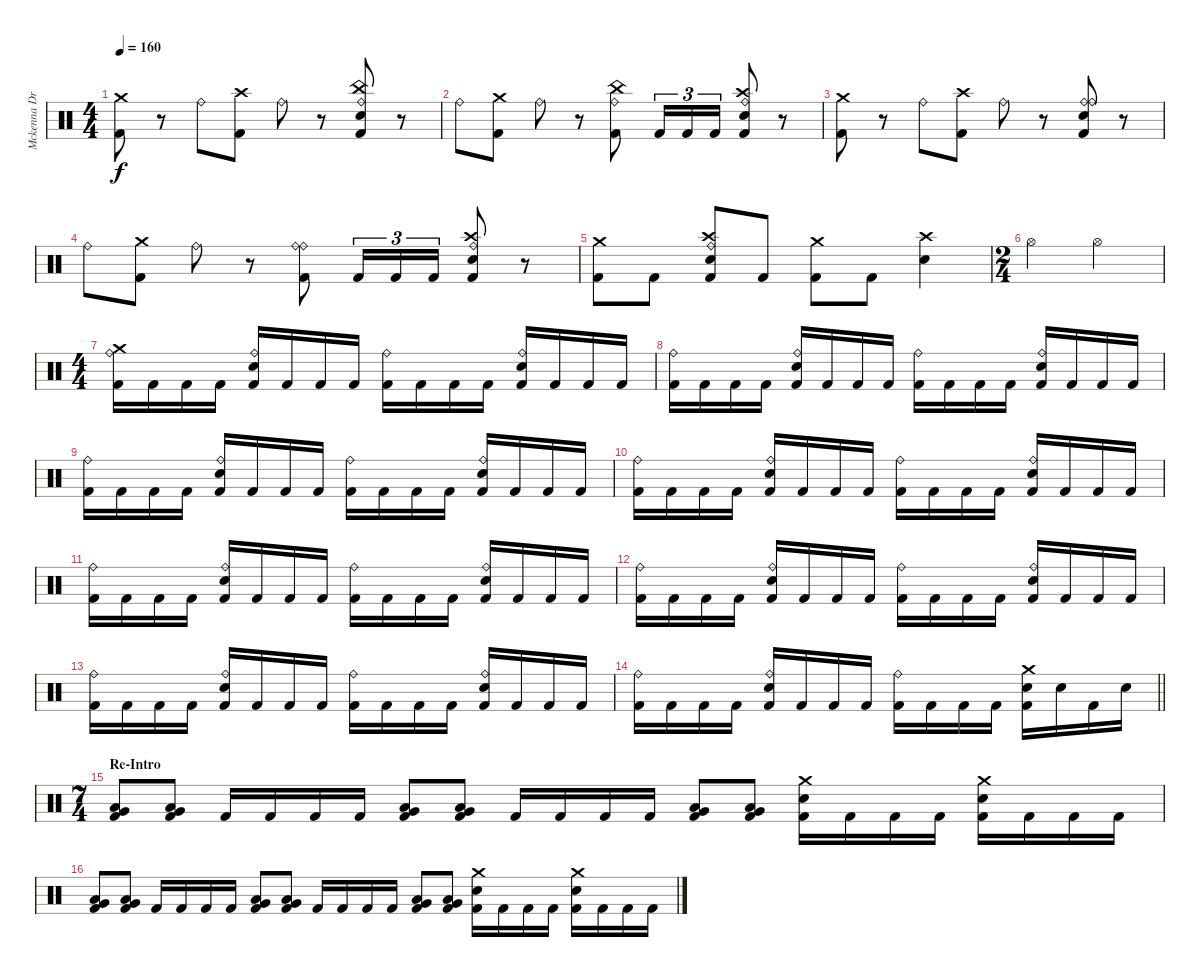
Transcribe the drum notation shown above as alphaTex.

\track ("Mckenna Drums" "Mckenna Dr") {instrument percussion}
\staff {score}
\articulation defaults
\ts (4 4)
\tempo 160
\clef neutral
\ks c
("Crash medium (hit)" "Kick (hit) 2").8{dy f} r.8 "Ride (bell)".8 ("Crash high (hit)" "Kick (hit) 2").8 "Ride (bell)".8 r.8 ("China (hit)" "Ride (bell)" "Electric Snare (hit)" "Kick (hit) 2").8 r.8 |
"Ride (bell)".8 ("Crash medium (hit)" "Kick (hit) 2").8 "Ride (bell)".8 r.8 ("China (hit)" "Ride (bell)" "Kick (hit) 2").8 "Kick (hit) 2".16{tu (3 2)} "Kick (hit) 2".16{tu (3 2)} "Kick (hit) 2".16{tu (3 2)} ("Crash high (hit)" "Ride (bell)" "Electric Snare (hit)" "Kick (hit) 2").8 r.8 |
("Crash medium (hit)" "Kick (hit) 2").8 r.8 "Ride (bell)".8 ("Crash high (hit)" "Kick (hit) 2").8 "Ride (bell)".8 r.8 ("Ride (bell)" "Ride (bell)" "Electric Snare (hit)" "Kick (hit) 2").8 r.8 |
"Ride (bell)".8 ("Crash medium (hit)" "Kick (hit) 2").8 "Ride (bell)".8 r.8 ("Ride (bell)" "Ride (bell)" "Kick (hit) 2").8 "Kick (hit) 2".16{tu (3 2)} "Kick (hit) 2".16{tu (3 2)} "Kick (hit) 2".16{tu (3 2)} ("Crash high (hit)" "Ride (bell)" "Electric Snare (hit)" "Kick (hit) 2").8 r.8 |
("Crash medium (hit)" "Kick (hit) 2").8 "Kick (hit) 2".8 ("Ride (bell)" "Crash high (hit)" "Electric Snare (hit)" "Kick (hit) 2").8 "Kick (hit) 2".8 ("Crash medium (hit)" "Kick (hit) 2").8 "Kick (hit) 2".8 ("Crash high (hit)" "Electric Snare (hit)").4 |
\ts (2 4)
"Hi-Hat (open)".4 "Hi-Hat (open)".4 |
\ts (4 4)
("Crash medium (hit)" "Ride (bell)" "Kick (hit) 2").16 "Kick (hit) 2".16 "Kick (hit) 2".16 "Kick (hit) 2".16 ("Ride (bell)" "Electric Snare (hit)" "Kick (hit) 2").16 "Kick (hit) 2".16 "Kick (hit) 2".16 "Kick (hit) 2".16 ("Ride (bell)" "Kick (hit) 2").16 "Kick (hit) 2".16 "Kick (hit) 2".16 "Kick (hit) 2".16 ("Ride (bell)" "Electric Snare (hit)" "Kick (hit) 2").16 "Kick (hit) 2".16 "Kick (hit) 2".16 "Kick (hit) 2".16 |
("Ride (bell)" "Kick (hit) 2").16 "Kick (hit) 2".16 "Kick (hit) 2".16 "Kick (hit) 2".16 ("Ride (bell)" "Electric Snare (hit)" "Kick (hit) 2").16 "Kick (hit) 2".16 "Kick (hit) 2".16 "Kick (hit) 2".16 ("Ride (bell)" "Kick (hit) 2").16 "Kick (hit) 2".16 "Kick (hit) 2".16 "Kick (hit) 2".16 ("Ride (bell)" "Electric Snare (hit)" "Kick (hit) 2").16 "Kick (hit) 2".16 "Kick (hit) 2".16 "Kick (hit) 2".16 |
("Ride (bell)" "Kick (hit) 2").16 "Kick (hit) 2".16 "Kick (hit) 2".16 "Kick (hit) 2".16 ("Ride (bell)" "Electric Snare (hit)" "Kick (hit) 2").16 "Kick (hit) 2".16 "Kick (hit) 2".16 "Kick (hit) 2".16 ("Ride (bell)" "Kick (hit) 2").16 "Kick (hit) 2".16 "Kick (hit) 2".16 "Kick (hit) 2".16 ("Ride (bell)" "Electric Snare (hit)" "Kick (hit) 2").16 "Kick (hit) 2".16 "Kick (hit) 2".16 "Kick (hit) 2".16 |
("Ride (bell)" "Kick (hit) 2").16 "Kick (hit) 2".16 "Kick (hit) 2".16 "Kick (hit) 2".16 ("Ride (bell)" "Electric Snare (hit)" "Kick (hit) 2").16 "Kick (hit) 2".16 "Kick (hit) 2".16 "Kick (hit) 2".16 ("Ride (bell)" "Kick (hit) 2").16 "Kick (hit) 2".16 "Kick (hit) 2".16 "Kick (hit) 2".16 ("Ride (bell)" "Electric Snare (hit)" "Kick (hit) 2").16 "Kick (hit) 2".16 "Kick (hit) 2".16 "Kick (hit) 2".16 |
("Ride (bell)" "Kick (hit) 2").16 "Kick (hit) 2".16 "Kick (hit) 2".16 "Kick (hit) 2".16 ("Ride (bell)" "Electric Snare (hit)" "Kick (hit) 2").16 "Kick (hit) 2".16 "Kick (hit) 2".16 "Kick (hit) 2".16 ("Ride (bell)" "Kick (hit) 2").16 "Kick (hit) 2".16 "Kick (hit) 2".16 "Kick (hit) 2".16 ("Ride (bell)" "Electric Snare (hit)" "Kick (hit) 2").16 "Kick (hit) 2".16 "Kick (hit) 2".16 "Kick (hit) 2".16 |
("Ride (bell)" "Kick (hit) 2").16 "Kick (hit) 2".16 "Kick (hit) 2".16 "Kick (hit) 2".16 ("Ride (bell)" "Electric Snare (hit)" "Kick (hit) 2").16 "Kick (hit) 2".16 "Kick (hit) 2".16 "Kick (hit) 2".16 ("Ride (bell)" "Kick (hit) 2").16 "Kick (hit) 2".16 "Kick (hit) 2".16 "Kick (hit) 2".16 ("Ride (bell)" "Electric Snare (hit)" "Kick (hit) 2").16 "Kick (hit) 2".16 "Kick (hit) 2".16 "Kick (hit) 2".16 |
("Ride (bell)" "Kick (hit) 2").16 "Kick (hit) 2".16 "Kick (hit) 2".16 "Kick (hit) 2".16 ("Ride (bell)" "Electric Snare (hit)" "Kick (hit) 2").16 "Kick (hit) 2".16 "Kick (hit) 2".16 "Kick (hit) 2".16 ("Ride (bell)" "Kick (hit) 2").16 "Kick (hit) 2".16 "Kick (hit) 2".16 "Kick (hit) 2".16 ("Ride (bell)" "Electric Snare (hit)" "Kick (hit) 2").16 "Kick (hit) 2".16 "Kick (hit) 2".16 "Kick (hit) 2".16 |
\barLineRight lightlight
("Ride (bell)" "Kick (hit) 2").16 "Kick (hit) 2".16 "Kick (hit) 2".16 "Kick (hit) 2".16 ("Ride (bell)" "Electric Snare (hit)" "Kick (hit) 2").16 "Kick (hit) 2".16 "Kick (hit) 2".16 "Kick (hit) 2".16 ("Ride (bell)" "Kick (hit) 2").16 "Kick (hit) 2".16 "Kick (hit) 2".16 "Kick (hit) 2".16 ("Crash medium (hit)" "Electric Snare (hit)" "Kick (hit) 2").16 "Electric Snare (hit)".16 "Kick (hit) 2".16 "Electric Snare (hit)".16 |
\ts (7 4)
\section ("" "Re-Intro")
("Very Low Tom (hit)" "Low Tom (hit)" "Kick (hit) 2").8 ("Very Low Tom (hit)" "Low Tom (hit)" "Kick (hit) 2").8 "Kick (hit) 2".16 "Kick (hit) 2".16 "Kick (hit) 2".16 "Kick (hit) 2".16 ("Very Low Tom (hit)" "Low Tom (hit)" "Kick (hit) 2").8 ("Very Low Tom (hit)" "Low Tom (hit)" "Kick (hit) 2").8 "Kick (hit) 2".16 "Kick (hit) 2".16 "Kick (hit) 2".16 "Kick (hit) 2".16 ("Very Low Tom (hit)" "Low Tom (hit)" "Kick (hit) 2").8 ("Very Low Tom (hit)" "Low Tom (hit)" "Kick (hit) 2").8 ("Crash medium (hit)" "Electric Snare (hit)" "Kick (hit) 2").16 "Kick (hit) 2".16 "Kick (hit) 2".16 "Kick (hit) 2".16 ("Crash medium (hit)" "Electric Snare (hit)" "Kick (hit) 2").16 "Kick (hit) 2".16 "Kick (hit) 2".16 "Kick (hit) 2".16 |
("Very Low Tom (hit)" "Low Tom (hit)" "Kick (hit) 2").8 ("Very Low Tom (hit)" "Low Tom (hit)" "Kick (hit) 2").8 "Kick (hit) 2".16 "Kick (hit) 2".16 "Kick (hit) 2".16 "Kick (hit) 2".16 ("Very Low Tom (hit)" "Low Tom (hit)" "Kick (hit) 2").8 ("Very Low Tom (hit)" "Low Tom (hit)" "Kick (hit) 2").8 "Kick (hit) 2".16 "Kick (hit) 2".16 "Kick (hit) 2".16 "Kick (hit) 2".16 ("Very Low Tom (hit)" "Low Tom (hit)" "Kick (hit) 2").8 ("Very Low Tom (hit)" "Low Tom (hit)" "Kick (hit) 2").8 ("Crash medium (hit)" "Electric Snare (hit)" "Kick (hit) 2").16 "Kick (hit) 2".16 "Kick (hit) 2".16 "Kick (hit) 2".16 ("Crash medium (hit)" "Electric Snare (hit)" "Kick (hit) 2").16 "Kick (hit) 2".16 "Kick (hit) 2".16 "Kick (hit) 2".16
